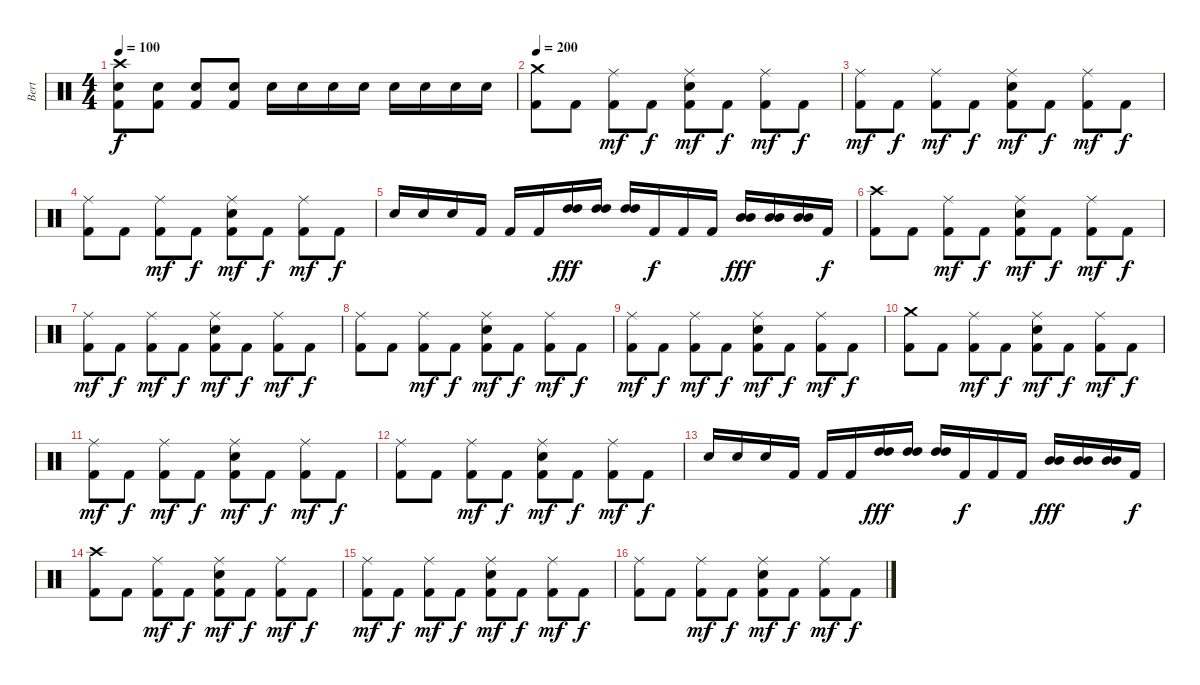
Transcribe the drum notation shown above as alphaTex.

\track ("Bert" "Bert") {instrument percussion}
\staff {score}
\articulation defaults
\ts (4 4)
\tempo 100
\clef neutral
\ks c
("Crash high (hit)" "Snare (hit) 2" "Kick (hit) 2").8{dy f} ("Snare (hit) 2" "Kick (hit) 2").8 ("Snare (hit) 2" "Kick (hit) 2").8 ("Snare (hit) 2" "Kick (hit) 2").8 "Snare (hit) 2".16 "Snare (hit) 2".16 "Snare (hit) 2".16 "Snare (hit) 2".16 "Snare (hit) 2".16 "Snare (hit) 2".16 "Snare (hit) 2".16 "Snare (hit) 2".16 |
\tempo 200
("Crash medium (hit)" "Kick (hit) 2").8 "Kick (hit) 2".8 ("Ride (middle)" "Kick (hit) 2").8{dy mf} "Kick (hit) 2".8{dy f} ("Ride (middle)" "Snare (hit) 2" "Kick (hit) 2").8{dy mf} "Kick (hit) 2".8{dy f} ("Ride (middle)" "Kick (hit) 2").8{dy mf} "Kick (hit) 2".8{dy f} |
("Ride (middle)" "Kick (hit) 2").8{dy mf} "Kick (hit) 2".8{dy f} ("Ride (middle)" "Kick (hit) 2").8{dy mf} "Kick (hit) 2".8{dy f} ("Ride (middle)" "Snare (hit) 2" "Kick (hit) 2").8{dy mf} "Kick (hit) 2".8{dy f} ("Ride (middle)" "Kick (hit) 2").8{dy mf} "Kick (hit) 2".8{dy f} |
("Ride (middle)" "Kick (hit) 2").8 "Kick (hit) 2".8 ("Ride (middle)" "Kick (hit) 2").8{dy mf} "Kick (hit) 2".8{dy f} ("Ride (middle)" "Snare (hit) 2" "Kick (hit) 2").8{dy mf} "Kick (hit) 2".8{dy f} ("Ride (middle)" "Kick (hit) 2").8{dy mf} "Kick (hit) 2".8{dy f} |
"Snare (hit) 2".16 "Snare (hit) 2".16 "Snare (hit) 2".16 "Kick (hit) 2".16 "Kick (hit) 2".16 "Kick (hit) 2".16 ("High Tom (hit)" "High Tom (hit)").16{dy fff} ("High Tom (hit)" "High Tom (hit)").16 ("High Tom (hit)" "High Tom (hit)").16 "Kick (hit) 2".16{dy f} "Kick (hit) 2".16 "Kick (hit) 2".16 ("Mid Tom (hit)" "Mid Tom (hit)").16{dy fff} ("Mid Tom (hit)" "Mid Tom (hit)").16 ("Mid Tom (hit)" "Mid Tom (hit)").16 "Kick (hit) 2".16{dy f} |
("Crash high (hit)" "Kick (hit) 2").8 "Kick (hit) 2".8 ("Ride (middle)" "Kick (hit) 2").8{dy mf} "Kick (hit) 2".8{dy f} ("Ride (middle)" "Snare (hit) 2" "Kick (hit) 2").8{dy mf} "Kick (hit) 2".8{dy f} ("Ride (middle)" "Kick (hit) 2").8{dy mf} "Kick (hit) 2".8{dy f} |
("Ride (middle)" "Kick (hit) 2").8{dy mf} "Kick (hit) 2".8{dy f} ("Ride (middle)" "Kick (hit) 2").8{dy mf} "Kick (hit) 2".8{dy f} ("Ride (middle)" "Snare (hit) 2" "Kick (hit) 2").8{dy mf} "Kick (hit) 2".8{dy f} ("Ride (middle)" "Kick (hit) 2").8{dy mf} "Kick (hit) 2".8{dy f} |
("Ride (middle)" "Kick (hit) 2").8 "Kick (hit) 2".8 ("Ride (middle)" "Kick (hit) 2").8{dy mf} "Kick (hit) 2".8{dy f} ("Ride (middle)" "Snare (hit) 2" "Kick (hit) 2").8{dy mf} "Kick (hit) 2".8{dy f} ("Ride (middle)" "Kick (hit) 2").8{dy mf} "Kick (hit) 2".8{dy f} |
("Ride (middle)" "Kick (hit) 2").8{dy mf} "Kick (hit) 2".8{dy f} ("Ride (middle)" "Kick (hit) 2").8{dy mf} "Kick (hit) 2".8{dy f} ("Ride (middle)" "Snare (hit) 2" "Kick (hit) 2").8{dy mf} "Kick (hit) 2".8{dy f} ("Ride (middle)" "Kick (hit) 2").8{dy mf} "Kick (hit) 2".8{dy f} |
("Crash medium (hit)" "Kick (hit) 2").8 "Kick (hit) 2".8 ("Ride (middle)" "Kick (hit) 2").8{dy mf} "Kick (hit) 2".8{dy f} ("Ride (middle)" "Snare (hit) 2" "Kick (hit) 2").8{dy mf} "Kick (hit) 2".8{dy f} ("Ride (middle)" "Kick (hit) 2").8{dy mf} "Kick (hit) 2".8{dy f} |
("Ride (middle)" "Kick (hit) 2").8{dy mf} "Kick (hit) 2".8{dy f} ("Ride (middle)" "Kick (hit) 2").8{dy mf} "Kick (hit) 2".8{dy f} ("Ride (middle)" "Snare (hit) 2" "Kick (hit) 2").8{dy mf} "Kick (hit) 2".8{dy f} ("Ride (middle)" "Kick (hit) 2").8{dy mf} "Kick (hit) 2".8{dy f} |
("Ride (middle)" "Kick (hit) 2").8 "Kick (hit) 2".8 ("Ride (middle)" "Kick (hit) 2").8{dy mf} "Kick (hit) 2".8{dy f} ("Ride (middle)" "Snare (hit) 2" "Kick (hit) 2").8{dy mf} "Kick (hit) 2".8{dy f} ("Ride (middle)" "Kick (hit) 2").8{dy mf} "Kick (hit) 2".8{dy f} |
"Snare (hit) 2".16 "Snare (hit) 2".16 "Snare (hit) 2".16 "Kick (hit) 2".16 "Kick (hit) 2".16 "Kick (hit) 2".16 ("High Tom (hit)" "High Tom (hit)").16{dy fff} ("High Tom (hit)" "High Tom (hit)").16 ("High Tom (hit)" "High Tom (hit)").16 "Kick (hit) 2".16{dy f} "Kick (hit) 2".16 "Kick (hit) 2".16 ("Mid Tom (hit)" "Mid Tom (hit)").16{dy fff} ("Mid Tom (hit)" "Mid Tom (hit)").16 ("Mid Tom (hit)" "Mid Tom (hit)").16 "Kick (hit) 2".16{dy f} |
("Crash high (hit)" "Kick (hit) 2").8 "Kick (hit) 2".8 ("Ride (middle)" "Kick (hit) 2").8{dy mf} "Kick (hit) 2".8{dy f} ("Ride (middle)" "Snare (hit) 2" "Kick (hit) 2").8{dy mf} "Kick (hit) 2".8{dy f} ("Ride (middle)" "Kick (hit) 2").8{dy mf} "Kick (hit) 2".8{dy f} |
("Ride (middle)" "Kick (hit) 2").8{dy mf} "Kick (hit) 2".8{dy f} ("Ride (middle)" "Kick (hit) 2").8{dy mf} "Kick (hit) 2".8{dy f} ("Ride (middle)" "Snare (hit) 2" "Kick (hit) 2").8{dy mf} "Kick (hit) 2".8{dy f} ("Ride (middle)" "Kick (hit) 2").8{dy mf} "Kick (hit) 2".8{dy f} |
("Ride (middle)" "Kick (hit) 2").8 "Kick (hit) 2".8 ("Ride (middle)" "Kick (hit) 2").8{dy mf} "Kick (hit) 2".8{dy f} ("Ride (middle)" "Snare (hit) 2" "Kick (hit) 2").8{dy mf} "Kick (hit) 2".8{dy f} ("Ride (middle)" "Kick (hit) 2").8{dy mf} "Kick (hit) 2".8{dy f}
